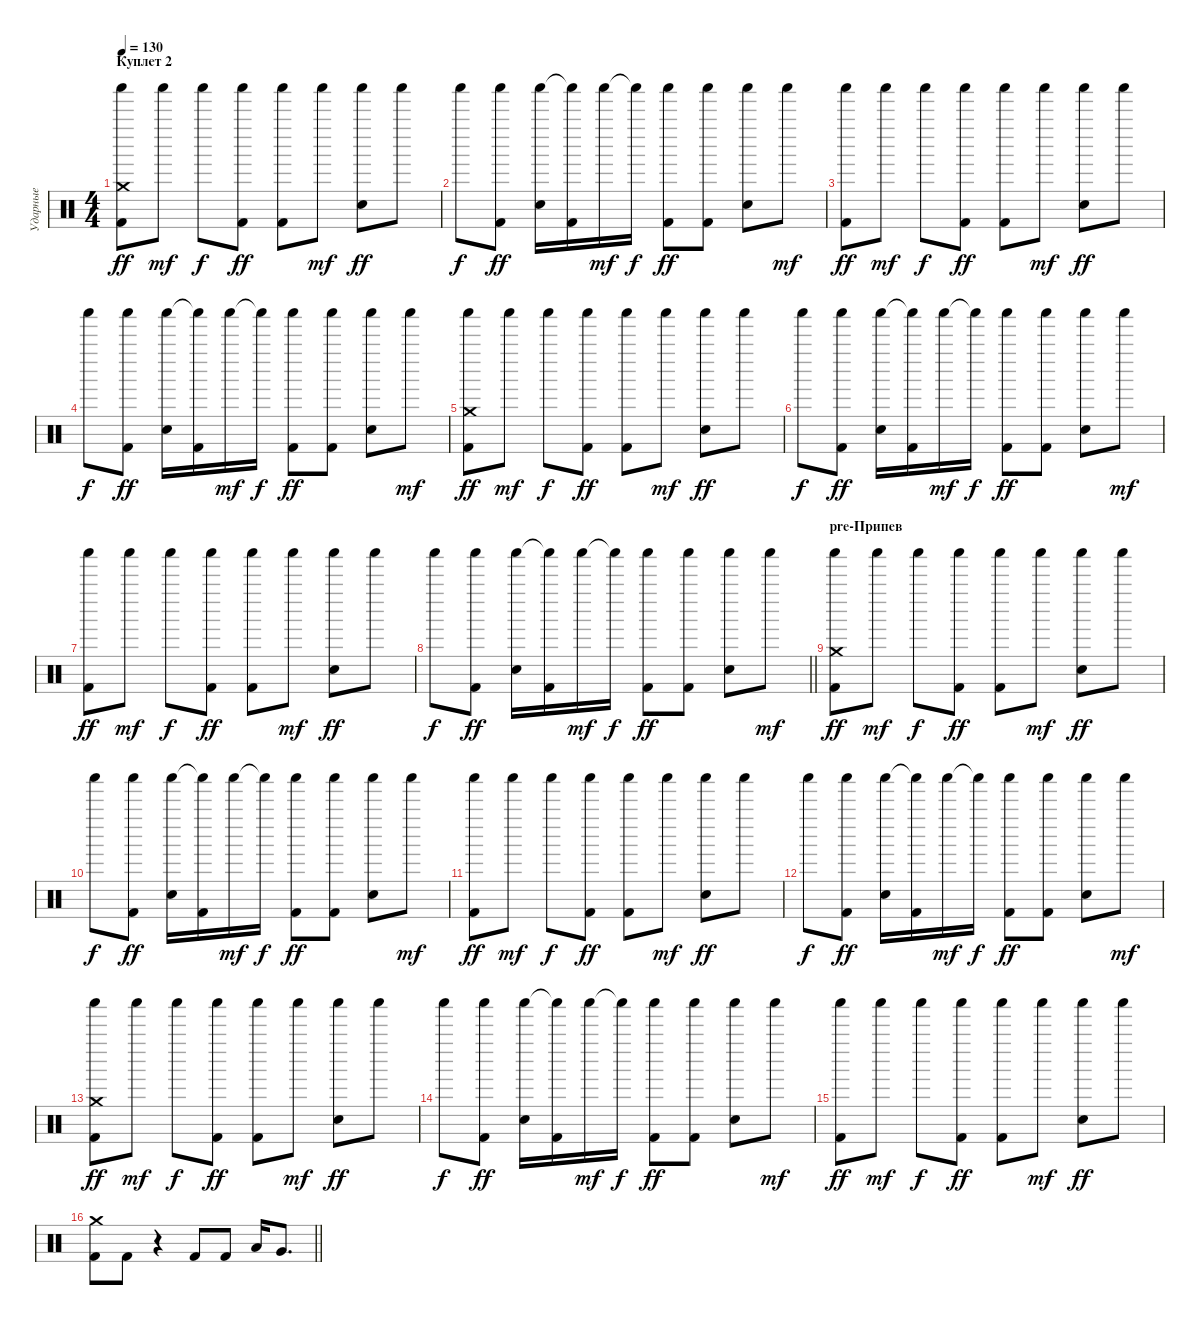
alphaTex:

\track ("Ударные" "Ударные") {instrument percussion}
\staff {score}
\articulation defaults
\ts (4 4)
\section ("" "Куплет 2")
\tempo 130
\clef neutral
\ks c
("Shaker (hit)" "Kick (hit) 2" "Crash medium (hit)").8{dy ff} "Shaker (hit)".8{dy mf} "Shaker (hit)".8{dy f} ("Shaker (hit)" "Kick (hit) 2").8{dy ff} ("Shaker (hit)" "Kick (hit) 2").8 "Shaker (hit)".8{dy mf} ("Shaker (hit)" "Snare (hit) 2").8{dy ff} "Shaker (hit)".8 |
"Shaker (hit)".8{dy f} ("Shaker (hit)" "Kick (hit) 2").8{dy ff} ("Shaker (hit)" "Snare (hit) 2").16 ("Shaker (hit)"{t} "Kick (hit) 2").16 "Shaker (hit)".16{dy mf} "Shaker (hit)"{t}.16{dy f} ("Shaker (hit)" "Kick (hit) 2").8{dy ff} ("Shaker (hit)" "Kick (hit) 2").8 ("Shaker (hit)" "Snare (hit) 2").8 "Shaker (hit)".8{dy mf} |
("Shaker (hit)" "Kick (hit) 2").8{dy ff} "Shaker (hit)".8{dy mf} "Shaker (hit)".8{dy f} ("Shaker (hit)" "Kick (hit) 2").8{dy ff} ("Shaker (hit)" "Kick (hit) 2").8 "Shaker (hit)".8{dy mf} ("Shaker (hit)" "Snare (hit) 2").8{dy ff} "Shaker (hit)".8 |
"Shaker (hit)".8{dy f} ("Shaker (hit)" "Kick (hit) 2").8{dy ff} ("Shaker (hit)" "Snare (hit) 2").16 ("Shaker (hit)"{t} "Kick (hit) 2").16 "Shaker (hit)".16{dy mf} "Shaker (hit)"{t}.16{dy f} ("Shaker (hit)" "Kick (hit) 2").8{dy ff} ("Shaker (hit)" "Kick (hit) 2").8 ("Shaker (hit)" "Snare (hit) 2").8 "Shaker (hit)".8{dy mf} |
("Shaker (hit)" "Kick (hit) 2" "Crash medium (hit)").8{dy ff} "Shaker (hit)".8{dy mf} "Shaker (hit)".8{dy f} ("Shaker (hit)" "Kick (hit) 2").8{dy ff} ("Shaker (hit)" "Kick (hit) 2").8 "Shaker (hit)".8{dy mf} ("Shaker (hit)" "Snare (hit) 2").8{dy ff} "Shaker (hit)".8 |
"Shaker (hit)".8{dy f} ("Shaker (hit)" "Kick (hit) 2").8{dy ff} ("Shaker (hit)" "Snare (hit) 2").16 ("Shaker (hit)"{t} "Kick (hit) 2").16 "Shaker (hit)".16{dy mf} "Shaker (hit)"{t}.16{dy f} ("Shaker (hit)" "Kick (hit) 2").8{dy ff} ("Shaker (hit)" "Kick (hit) 2").8 ("Shaker (hit)" "Snare (hit) 2").8 "Shaker (hit)".8{dy mf} |
("Shaker (hit)" "Kick (hit) 2").8{dy ff} "Shaker (hit)".8{dy mf} "Shaker (hit)".8{dy f} ("Shaker (hit)" "Kick (hit) 2").8{dy ff} ("Shaker (hit)" "Kick (hit) 2").8 "Shaker (hit)".8{dy mf} ("Shaker (hit)" "Snare (hit) 2").8{dy ff} "Shaker (hit)".8 |
\barLineRight lightlight "Shaker (hit)".8{dy f}
("Shaker (hit)" "Kick (hit) 2").8{dy ff} ("Shaker (hit)" "Snare (hit) 2").16 ("Shaker (hit)"{t} "Kick (hit) 2").16 "Shaker (hit)".16{dy mf} "Shaker (hit)"{t}.16{dy f} ("Shaker (hit)" "Kick (hit) 2").8{dy ff} ("Shaker (hit)" "Kick (hit) 2").8 ("Shaker (hit)" "Snare (hit) 2").8 "Shaker (hit)".8{dy mf} |
\section ("" "pre-Припев")
("Shaker (hit)" "Kick (hit) 2" "Crash medium (hit)").8{dy ff} "Shaker (hit)".8{dy mf} "Shaker (hit)".8{dy f} ("Shaker (hit)" "Kick (hit) 2").8{dy ff} ("Shaker (hit)" "Kick (hit) 2").8 "Shaker (hit)".8{dy mf} ("Shaker (hit)" "Snare (hit) 2").8{dy ff} "Shaker (hit)".8 |
"Shaker (hit)".8{dy f} ("Shaker (hit)" "Kick (hit) 2").8{dy ff} ("Shaker (hit)" "Snare (hit) 2").16 ("Shaker (hit)"{t} "Kick (hit) 2").16 "Shaker (hit)".16{dy mf} "Shaker (hit)"{t}.16{dy f} ("Shaker (hit)" "Kick (hit) 2").8{dy ff} ("Shaker (hit)" "Kick (hit) 2").8 ("Shaker (hit)" "Snare (hit) 2").8 "Shaker (hit)".8{dy mf} |
("Shaker (hit)" "Kick (hit) 2").8{dy ff} "Shaker (hit)".8{dy mf} "Shaker (hit)".8{dy f} ("Shaker (hit)" "Kick (hit) 2").8{dy ff} ("Shaker (hit)" "Kick (hit) 2").8 "Shaker (hit)".8{dy mf} ("Shaker (hit)" "Snare (hit) 2").8{dy ff} "Shaker (hit)".8 |
"Shaker (hit)".8{dy f} ("Shaker (hit)" "Kick (hit) 2").8{dy ff} ("Shaker (hit)" "Snare (hit) 2").16 ("Shaker (hit)"{t} "Kick (hit) 2").16 "Shaker (hit)".16{dy mf} "Shaker (hit)"{t}.16{dy f} ("Shaker (hit)" "Kick (hit) 2").8{dy ff} ("Shaker (hit)" "Kick (hit) 2").8 ("Shaker (hit)" "Snare (hit) 2").8 "Shaker (hit)".8{dy mf} |
("Shaker (hit)" "Kick (hit) 2" "Crash medium (hit)").8{dy ff} "Shaker (hit)".8{dy mf} "Shaker (hit)".8{dy f} ("Shaker (hit)" "Kick (hit) 2").8{dy ff} ("Shaker (hit)" "Kick (hit) 2").8 "Shaker (hit)".8{dy mf} ("Shaker (hit)" "Snare (hit) 2").8{dy ff} "Shaker (hit)".8 |
"Shaker (hit)".8{dy f} ("Shaker (hit)" "Kick (hit) 2").8{dy ff} ("Shaker (hit)" "Snare (hit) 2").16 ("Shaker (hit)"{t} "Kick (hit) 2").16 "Shaker (hit)".16{dy mf} "Shaker (hit)"{t}.16{dy f} ("Shaker (hit)" "Kick (hit) 2").8{dy ff} ("Shaker (hit)" "Kick (hit) 2").8 ("Shaker (hit)" "Snare (hit) 2").8 "Shaker (hit)".8{dy mf} |
("Shaker (hit)" "Kick (hit) 2").8{dy ff} "Shaker (hit)".8{dy mf} "Shaker (hit)".8{dy f} ("Shaker (hit)" "Kick (hit) 2").8{dy ff} ("Shaker (hit)" "Kick (hit) 2").8 "Shaker (hit)".8{dy mf} ("Shaker (hit)" "Snare (hit) 2").8{dy ff} "Shaker (hit)".8 |
\barLineRight lightlight
("Kick (hit) 2" "Crash medium (hit)").8 "Kick (hit) 2".8 r.4 "Kick (hit) 2".8 "Kick (hit) 2".8 "Low Tom (hit)".16 "Very Low Tom (hit)".8{d}
